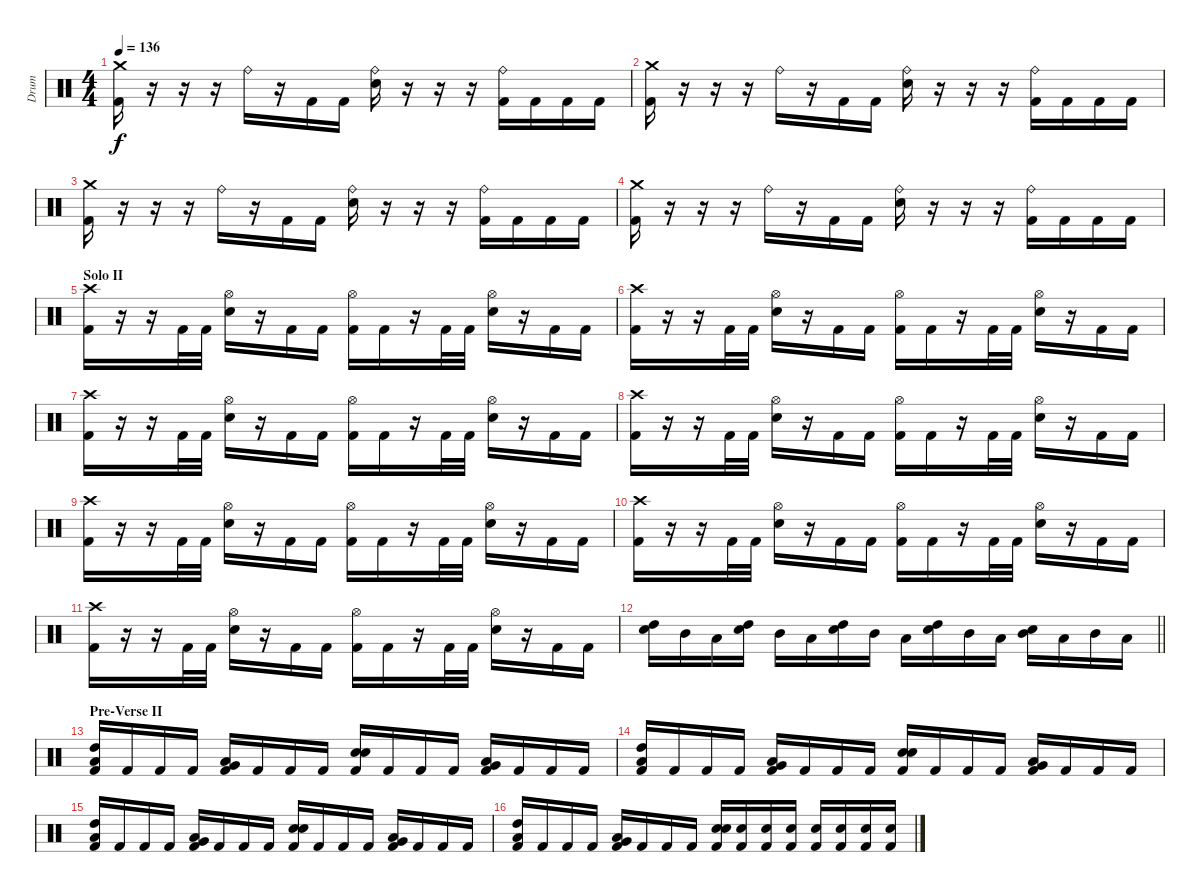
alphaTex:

\track ("Drum" "Drum") {instrument percussion}
\staff {score}
\articulation defaults
\ts (4 4)
\tempo 136
\clef neutral
\ks c
("Crash medium (hit)" "Kick (hit) 2").16{dy f} r.16 r.16 r.16 "Ride (bell)".16 r.16 "Kick (hit) 2".16 "Kick (hit) 2".16 ("Ride (bell)" "Snare (hit) 2").16 r.16 r.16 r.16 ("Ride (bell)" "Kick (hit) 2").16 "Kick (hit) 2".16 "Kick (hit) 2".16 "Kick (hit) 2".16 |
("Crash medium (hit)" "Kick (hit) 2").16 r.16 r.16 r.16 "Ride (bell)".16 r.16 "Kick (hit) 2".16 "Kick (hit) 2".16 ("Ride (bell)" "Snare (hit) 2").16 r.16 r.16 r.16 ("Ride (bell)" "Kick (hit) 2").16 "Kick (hit) 2".16 "Kick (hit) 2".16 "Kick (hit) 2".16 |
("Crash medium (hit)" "Kick (hit) 2").16 r.16 r.16 r.16 "Ride (bell)".16 r.16 "Kick (hit) 2".16 "Kick (hit) 2".16 ("Ride (bell)" "Snare (hit) 2").16 r.16 r.16 r.16 ("Ride (bell)" "Kick (hit) 2").16 "Kick (hit) 2".16 "Kick (hit) 2".16 "Kick (hit) 2".16 |
("Crash medium (hit)" "Kick (hit) 2").16 r.16 r.16 r.16 "Ride (bell)".16 r.16 "Kick (hit) 2".16 "Kick (hit) 2".16 ("Ride (bell)" "Snare (hit) 2").16 r.16 r.16 r.16 ("Ride (bell)" "Kick (hit) 2").16 "Kick (hit) 2".16 "Kick (hit) 2".16 "Kick (hit) 2".16 |
\section ("" "Solo II")
("Crash high (hit)" "Kick (hit) 2").16 r.16 r.16 "Kick (hit) 2".32 "Kick (hit) 2".32 ("Hi-Hat (open)" "Snare (hit) 2").16 r.16 "Kick (hit) 2".16 "Kick (hit) 2".16 ("Hi-Hat (open)" "Kick (hit) 2").16 "Kick (hit) 2".16 r.16 "Kick (hit) 2".32 "Kick (hit) 2".32 ("Hi-Hat (open)" "Snare (hit) 2").16 r.16 "Kick (hit) 2".16 "Kick (hit) 2".16 |
("Crash high (hit)" "Kick (hit) 2").16 r.16 r.16 "Kick (hit) 2".32 "Kick (hit) 2".32 ("Hi-Hat (open)" "Snare (hit) 2").16 r.16 "Kick (hit) 2".16 "Kick (hit) 2".16 ("Hi-Hat (open)" "Kick (hit) 2").16 "Kick (hit) 2".16 r.16 "Kick (hit) 2".32 "Kick (hit) 2".32 ("Hi-Hat (open)" "Snare (hit) 2").16 r.16 "Kick (hit) 2".16 "Kick (hit) 2".16 |
("Crash high (hit)" "Kick (hit) 2").16 r.16 r.16 "Kick (hit) 2".32 "Kick (hit) 2".32 ("Hi-Hat (open)" "Snare (hit) 2").16 r.16 "Kick (hit) 2".16 "Kick (hit) 2".16 ("Hi-Hat (open)" "Kick (hit) 2").16 "Kick (hit) 2".16 r.16 "Kick (hit) 2".32 "Kick (hit) 2".32 ("Hi-Hat (open)" "Snare (hit) 2").16 r.16 "Kick (hit) 2".16 "Kick (hit) 2".16 |
("Crash high (hit)" "Kick (hit) 2").16 r.16 r.16 "Kick (hit) 2".32 "Kick (hit) 2".32 ("Hi-Hat (open)" "Snare (hit) 2").16 r.16 "Kick (hit) 2".16 "Kick (hit) 2".16 ("Hi-Hat (open)" "Kick (hit) 2").16 "Kick (hit) 2".16 r.16 "Kick (hit) 2".32 "Kick (hit) 2".32 ("Hi-Hat (open)" "Snare (hit) 2").16 r.16 "Kick (hit) 2".16 "Kick (hit) 2".16 |
("Crash high (hit)" "Kick (hit) 2").16 r.16 r.16 "Kick (hit) 2".32 "Kick (hit) 2".32 ("Hi-Hat (open)" "Snare (hit) 2").16 r.16 "Kick (hit) 2".16 "Kick (hit) 2".16 ("Hi-Hat (open)" "Kick (hit) 2").16 "Kick (hit) 2".16 r.16 "Kick (hit) 2".32 "Kick (hit) 2".32 ("Hi-Hat (open)" "Snare (hit) 2").16 r.16 "Kick (hit) 2".16 "Kick (hit) 2".16 |
("Crash high (hit)" "Kick (hit) 2").16 r.16 r.16 "Kick (hit) 2".32 "Kick (hit) 2".32 ("Hi-Hat (open)" "Snare (hit) 2").16 r.16 "Kick (hit) 2".16 "Kick (hit) 2".16 ("Hi-Hat (open)" "Kick (hit) 2").16 "Kick (hit) 2".16 r.16 "Kick (hit) 2".32 "Kick (hit) 2".32 ("Hi-Hat (open)" "Snare (hit) 2").16 r.16 "Kick (hit) 2".16 "Kick (hit) 2".16 |
("Crash high (hit)" "Kick (hit) 2").16 r.16 r.16 "Kick (hit) 2".32 "Kick (hit) 2".32 ("Hi-Hat (open)" "Snare (hit) 2").16 r.16 "Kick (hit) 2".16 "Kick (hit) 2".16 ("Hi-Hat (open)" "Kick (hit) 2").16 "Kick (hit) 2".16 r.16 "Kick (hit) 2".32 "Kick (hit) 2".32 ("Hi-Hat (open)" "Snare (hit) 2").16 r.16 "Kick (hit) 2".16 "Kick (hit) 2".16 |
\barLineRight lightlight
("Snare (hit) 2" "High Tom (hit)").16 "Mid Tom (hit)".16 "Low Tom (hit)".16 ("Snare (hit) 2" "High Tom (hit)").16 "Mid Tom (hit)".16 "Low Tom (hit)".16 ("Snare (hit) 2" "High Tom (hit)").16 "Mid Tom (hit)".16 "Low Tom (hit)".16 ("Snare (hit) 2" "High Tom (hit)").16 "Mid Tom (hit)".16 "Low Tom (hit)".16 ("Snare (hit) 2" "Mid Tom (hit)").16 "Low Tom (hit)".16 "Mid Tom (hit)".16 "Low Tom (hit)".16 |
\section ("" "Pre-Verse II")
("High Tom (hit)" "Low Tom (hit)" "Kick (hit) 2").16 "Kick (hit) 2".16 "Kick (hit) 2".16 "Kick (hit) 2".16 ("Low Tom (hit)" "Very Low Tom (hit)" "Kick (hit) 2").16 "Kick (hit) 2".16 "Kick (hit) 2".16 "Kick (hit) 2".16 ("Snare (hit) 2" "Electric Snare (hit)" "Kick (hit) 2").16 "Kick (hit) 2".16 "Kick (hit) 2".16 "Kick (hit) 2".16 ("Low Floor Tom (hit)" "Very Low Tom (hit)" "Kick (hit) 2").16 "Kick (hit) 2".16 "Kick (hit) 2".16 "Kick (hit) 2".16 |
("High Tom (hit)" "Low Tom (hit)" "Kick (hit) 2").16 "Kick (hit) 2".16 "Kick (hit) 2".16 "Kick (hit) 2".16 ("Low Tom (hit)" "Very Low Tom (hit)" "Kick (hit) 2").16 "Kick (hit) 2".16 "Kick (hit) 2".16 "Kick (hit) 2".16 ("Snare (hit) 2" "Electric Snare (hit)" "Kick (hit) 2").16 "Kick (hit) 2".16 "Kick (hit) 2".16 "Kick (hit) 2".16 ("Low Floor Tom (hit)" "Very Low Tom (hit)" "Kick (hit) 2").16 "Kick (hit) 2".16 "Kick (hit) 2".16 "Kick (hit) 2".16 |
("High Tom (hit)" "Low Tom (hit)" "Kick (hit) 2").16 "Kick (hit) 2".16 "Kick (hit) 2".16 "Kick (hit) 2".16 ("Low Tom (hit)" "Very Low Tom (hit)" "Kick (hit) 2").16 "Kick (hit) 2".16 "Kick (hit) 2".16 "Kick (hit) 2".16 ("Snare (hit) 2" "Electric Snare (hit)" "Kick (hit) 2").16 "Kick (hit) 2".16 "Kick (hit) 2".16 "Kick (hit) 2".16 ("Low Floor Tom (hit)" "Very Low Tom (hit)" "Kick (hit) 2").16 "Kick (hit) 2".16 "Kick (hit) 2".16 "Kick (hit) 2".16 |
("High Tom (hit)" "Low Tom (hit)" "Kick (hit) 2").16 "Kick (hit) 2".16 "Kick (hit) 2".16 "Kick (hit) 2".16 ("Low Tom (hit)" "Very Low Tom (hit)" "Kick (hit) 2").16 "Kick (hit) 2".16 "Kick (hit) 2".16 "Kick (hit) 2".16 ("Snare (hit) 2" "Electric Snare (hit)" "Kick (hit) 2").16 ("Snare (hit) 2" "Kick (hit) 2").16 ("Snare (hit) 2" "Kick (hit) 2").16 ("Snare (hit) 2" "Kick (hit) 2").16 ("Snare (hit) 2" "Kick (hit) 2").16 ("Snare (hit) 2" "Kick (hit) 2").16 ("Snare (hit) 2" "Kick (hit) 2").16 ("Snare (hit) 2" "Kick (hit) 2").16
